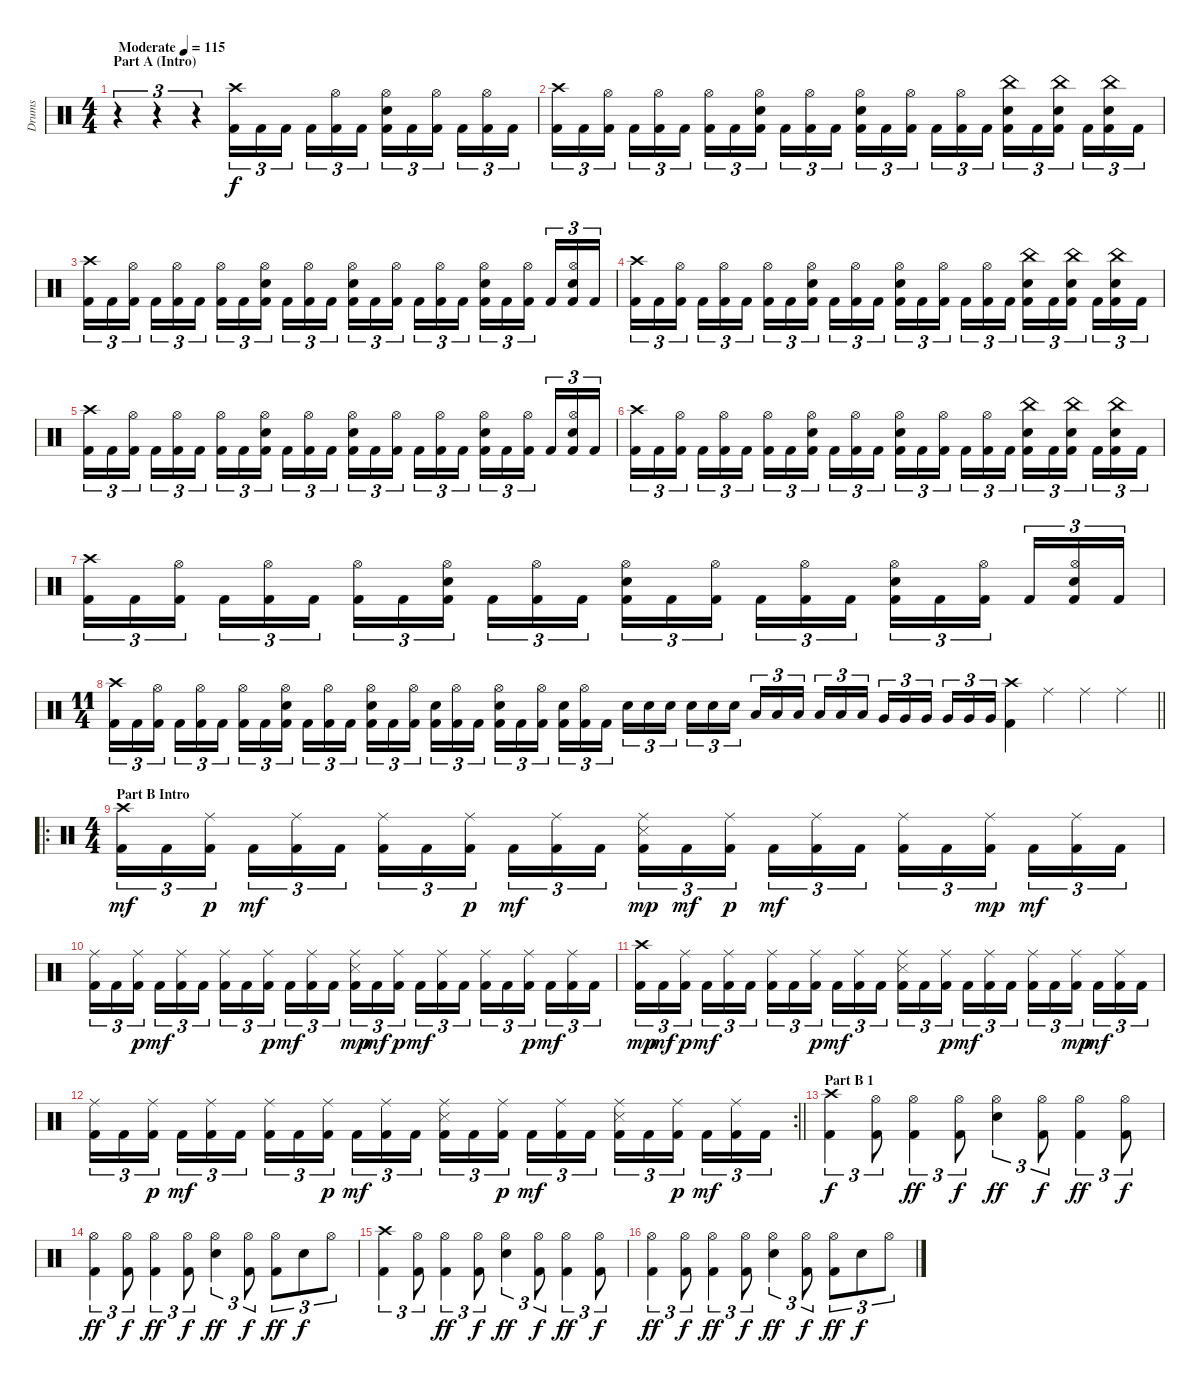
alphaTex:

\track ("Drums" "Drums") {instrument percussion}
\staff {score}
\articulation defaults
\ts (4 4)
\section ("" "Part A (Intro)")
\tempo (115 "Moderate")
\clef neutral
\ks c
r.4{tu (3 2) dy f} r.4{tu (3 2)} r.4{tu (3 2)} ("Kick (hit) 2" "Crash high (hit)").16{tu (3 2)} "Kick (hit) 2".16{tu (3 2)} "Kick (hit) 2".16{tu (3 2) beam splitsecondary} "Kick (hit) 2".16{tu (3 2)} ("Kick (hit) 2" "Hi-Hat (open)").16{tu (3 2)} "Kick (hit) 2".16{tu (3 2)} ("Kick (hit) 2" "Hi-Hat (open)" "Snare (hit) 2").16{tu (3 2)} "Kick (hit) 2".16{tu (3 2)} ("Kick (hit) 2" "Hi-Hat (open)").16{tu (3 2) beam splitsecondary} "Kick (hit) 2".16{tu (3 2)} ("Kick (hit) 2" "Hi-Hat (open)").16{tu (3 2)} "Kick (hit) 2".16{tu (3 2)} |
("Kick (hit) 2" "Crash high (hit)").16{tu (3 2)} "Kick (hit) 2".16{tu (3 2)} ("Kick (hit) 2" "Hi-Hat (open)").16{tu (3 2) beam splitsecondary} "Kick (hit) 2".16{tu (3 2)} ("Kick (hit) 2" "Hi-Hat (open)").16{tu (3 2)} "Kick (hit) 2".16{tu (3 2)} ("Kick (hit) 2" "Hi-Hat (open)").16{tu (3 2)} "Kick (hit) 2".16{tu (3 2)} ("Kick (hit) 2" "Hi-Hat (open)" "Snare (hit) 2").16{tu (3 2) beam splitsecondary} "Kick (hit) 2".16{tu (3 2)} ("Kick (hit) 2" "Hi-Hat (open)").16{tu (3 2)} "Kick (hit) 2".16{tu (3 2)} ("Kick (hit) 2" "Snare (hit) 2" "Hi-Hat (open)").16{tu (3 2)} "Kick (hit) 2".16{tu (3 2)} ("Kick (hit) 2" "Hi-Hat (open)").16{tu (3 2) beam splitsecondary} "Kick (hit) 2".16{tu (3 2)} ("Kick (hit) 2" "Hi-Hat (open)").16{tu (3 2)} "Kick (hit) 2".16{tu (3 2)} ("Kick (hit) 2" "China (hit)" "Snare (hit) 2").16{tu (3 2)} "Kick (hit) 2".16{tu (3 2)} ("Kick (hit) 2" "Snare (hit) 2" "China (hit)").16{tu (3 2) beam splitsecondary} "Kick (hit) 2".16{tu (3 2)} ("Kick (hit) 2" "China (hit)" "Snare (hit) 2").16{tu (3 2)} "Kick (hit) 2".16{tu (3 2)} |
("Kick (hit) 2" "Crash high (hit)").16{tu (3 2)} "Kick (hit) 2".16{tu (3 2)} ("Kick (hit) 2" "Hi-Hat (open)").16{tu (3 2) beam splitsecondary} "Kick (hit) 2".16{tu (3 2)} ("Kick (hit) 2" "Hi-Hat (open)").16{tu (3 2)} "Kick (hit) 2".16{tu (3 2)} ("Kick (hit) 2" "Hi-Hat (open)").16{tu (3 2)} "Kick (hit) 2".16{tu (3 2)} ("Kick (hit) 2" "Hi-Hat (open)" "Snare (hit) 2").16{tu (3 2) beam splitsecondary} "Kick (hit) 2".16{tu (3 2)} ("Kick (hit) 2" "Hi-Hat (open)").16{tu (3 2)} "Kick (hit) 2".16{tu (3 2)} ("Kick (hit) 2" "Snare (hit) 2" "Hi-Hat (open)").16{tu (3 2)} "Kick (hit) 2".16{tu (3 2)} ("Kick (hit) 2" "Hi-Hat (open)").16{tu (3 2) beam splitsecondary} "Kick (hit) 2".16{tu (3 2)} ("Kick (hit) 2" "Hi-Hat (open)").16{tu (3 2)} "Kick (hit) 2".16{tu (3 2)} ("Kick (hit) 2" "Hi-Hat (open)" "Snare (hit) 2").16{tu (3 2)} "Kick (hit) 2".16{tu (3 2)} ("Kick (hit) 2" "Hi-Hat (open)").16{tu (3 2) beam splitsecondary} "Kick (hit) 2".16{tu (3 2)} ("Kick (hit) 2" "Hi-Hat (open)" "Snare (hit) 2").16{tu (3 2)} "Kick (hit) 2".16{tu (3 2)} |
("Kick (hit) 2" "Crash high (hit)").16{tu (3 2)} "Kick (hit) 2".16{tu (3 2)} ("Kick (hit) 2" "Hi-Hat (open)").16{tu (3 2) beam splitsecondary} "Kick (hit) 2".16{tu (3 2)} ("Kick (hit) 2" "Hi-Hat (open)").16{tu (3 2)} "Kick (hit) 2".16{tu (3 2)} ("Kick (hit) 2" "Hi-Hat (open)").16{tu (3 2)} "Kick (hit) 2".16{tu (3 2)} ("Kick (hit) 2" "Hi-Hat (open)" "Snare (hit) 2").16{tu (3 2) beam splitsecondary} "Kick (hit) 2".16{tu (3 2)} ("Kick (hit) 2" "Hi-Hat (open)").16{tu (3 2)} "Kick (hit) 2".16{tu (3 2)} ("Kick (hit) 2" "Snare (hit) 2" "Hi-Hat (open)").16{tu (3 2)} "Kick (hit) 2".16{tu (3 2)} ("Kick (hit) 2" "Hi-Hat (open)").16{tu (3 2) beam splitsecondary} "Kick (hit) 2".16{tu (3 2)} ("Kick (hit) 2" "Hi-Hat (open)").16{tu (3 2)} "Kick (hit) 2".16{tu (3 2)} ("Kick (hit) 2" "China (hit)" "Snare (hit) 2").16{tu (3 2)} "Kick (hit) 2".16{tu (3 2)} ("Kick (hit) 2" "Snare (hit) 2" "China (hit)").16{tu (3 2) beam splitsecondary} "Kick (hit) 2".16{tu (3 2)} ("Kick (hit) 2" "China (hit)" "Snare (hit) 2").16{tu (3 2)} "Kick (hit) 2".16{tu (3 2)} |
("Kick (hit) 2" "Crash high (hit)").16{tu (3 2)} "Kick (hit) 2".16{tu (3 2)} ("Kick (hit) 2" "Hi-Hat (open)").16{tu (3 2) beam splitsecondary} "Kick (hit) 2".16{tu (3 2)} ("Kick (hit) 2" "Hi-Hat (open)").16{tu (3 2)} "Kick (hit) 2".16{tu (3 2)} ("Kick (hit) 2" "Hi-Hat (open)").16{tu (3 2)} "Kick (hit) 2".16{tu (3 2)} ("Kick (hit) 2" "Hi-Hat (open)" "Snare (hit) 2").16{tu (3 2) beam splitsecondary} "Kick (hit) 2".16{tu (3 2)} ("Kick (hit) 2" "Hi-Hat (open)").16{tu (3 2)} "Kick (hit) 2".16{tu (3 2)} ("Kick (hit) 2" "Snare (hit) 2" "Hi-Hat (open)").16{tu (3 2)} "Kick (hit) 2".16{tu (3 2)} ("Kick (hit) 2" "Hi-Hat (open)").16{tu (3 2) beam splitsecondary} "Kick (hit) 2".16{tu (3 2)} ("Kick (hit) 2" "Hi-Hat (open)").16{tu (3 2)} "Kick (hit) 2".16{tu (3 2)} ("Kick (hit) 2" "Hi-Hat (open)" "Snare (hit) 2").16{tu (3 2)} "Kick (hit) 2".16{tu (3 2)} ("Kick (hit) 2" "Hi-Hat (open)").16{tu (3 2) beam splitsecondary} "Kick (hit) 2".16{tu (3 2)} ("Kick (hit) 2" "Hi-Hat (open)" "Snare (hit) 2").16{tu (3 2)} "Kick (hit) 2".16{tu (3 2)} |
("Kick (hit) 2" "Crash high (hit)").16{tu (3 2)} "Kick (hit) 2".16{tu (3 2)} ("Kick (hit) 2" "Hi-Hat (open)").16{tu (3 2) beam splitsecondary} "Kick (hit) 2".16{tu (3 2)} ("Kick (hit) 2" "Hi-Hat (open)").16{tu (3 2)} "Kick (hit) 2".16{tu (3 2)} ("Kick (hit) 2" "Hi-Hat (open)").16{tu (3 2)} "Kick (hit) 2".16{tu (3 2)} ("Kick (hit) 2" "Hi-Hat (open)" "Snare (hit) 2").16{tu (3 2) beam splitsecondary} "Kick (hit) 2".16{tu (3 2)} ("Kick (hit) 2" "Hi-Hat (open)").16{tu (3 2)} "Kick (hit) 2".16{tu (3 2)} ("Kick (hit) 2" "Snare (hit) 2" "Hi-Hat (open)").16{tu (3 2)} "Kick (hit) 2".16{tu (3 2)} ("Kick (hit) 2" "Hi-Hat (open)").16{tu (3 2) beam splitsecondary} "Kick (hit) 2".16{tu (3 2)} ("Kick (hit) 2" "Hi-Hat (open)").16{tu (3 2)} "Kick (hit) 2".16{tu (3 2)} ("Kick (hit) 2" "China (hit)" "Snare (hit) 2").16{tu (3 2)} "Kick (hit) 2".16{tu (3 2)} ("Kick (hit) 2" "Snare (hit) 2" "China (hit)").16{tu (3 2) beam splitsecondary} "Kick (hit) 2".16{tu (3 2)} ("Kick (hit) 2" "China (hit)" "Snare (hit) 2").16{tu (3 2)} "Kick (hit) 2".16{tu (3 2)} |
("Kick (hit) 2" "Crash high (hit)").16{tu (3 2)} "Kick (hit) 2".16{tu (3 2)} ("Kick (hit) 2" "Hi-Hat (open)").16{tu (3 2) beam splitsecondary} "Kick (hit) 2".16{tu (3 2)} ("Kick (hit) 2" "Hi-Hat (open)").16{tu (3 2)} "Kick (hit) 2".16{tu (3 2)} ("Kick (hit) 2" "Hi-Hat (open)").16{tu (3 2)} "Kick (hit) 2".16{tu (3 2)} ("Kick (hit) 2" "Hi-Hat (open)" "Snare (hit) 2").16{tu (3 2) beam splitsecondary} "Kick (hit) 2".16{tu (3 2)} ("Kick (hit) 2" "Hi-Hat (open)").16{tu (3 2)} "Kick (hit) 2".16{tu (3 2)} ("Kick (hit) 2" "Snare (hit) 2" "Hi-Hat (open)").16{tu (3 2)} "Kick (hit) 2".16{tu (3 2)} ("Kick (hit) 2" "Hi-Hat (open)").16{tu (3 2) beam splitsecondary} "Kick (hit) 2".16{tu (3 2)} ("Kick (hit) 2" "Hi-Hat (open)").16{tu (3 2)} "Kick (hit) 2".16{tu (3 2)} ("Kick (hit) 2" "Hi-Hat (open)" "Snare (hit) 2").16{tu (3 2)} "Kick (hit) 2".16{tu (3 2)} ("Kick (hit) 2" "Hi-Hat (open)").16{tu (3 2) beam splitsecondary} "Kick (hit) 2".16{tu (3 2)} ("Kick (hit) 2" "Hi-Hat (open)" "Snare (hit) 2").16{tu (3 2)} "Kick (hit) 2".16{tu (3 2)} |
\ts (11 4)
\barLineRight lightlight
("Kick (hit) 2" "Crash high (hit)").16{tu (3 2)} "Kick (hit) 2".16{tu (3 2)} ("Kick (hit) 2" "Hi-Hat (open)").16{tu (3 2) beam splitsecondary} "Kick (hit) 2".16{tu (3 2)} ("Kick (hit) 2" "Hi-Hat (open)").16{tu (3 2)} "Kick (hit) 2".16{tu (3 2)} ("Kick (hit) 2" "Hi-Hat (open)").16{tu (3 2)} "Kick (hit) 2".16{tu (3 2)} ("Kick (hit) 2" "Hi-Hat (open)" "Snare (hit) 2").16{tu (3 2) beam splitsecondary} "Kick (hit) 2".16{tu (3 2)} ("Kick (hit) 2" "Hi-Hat (open)").16{tu (3 2)} "Kick (hit) 2".16{tu (3 2)} ("Kick (hit) 2" "Snare (hit) 2" "Hi-Hat (open)").16{tu (3 2)} "Kick (hit) 2".16{tu (3 2)} ("Kick (hit) 2" "Hi-Hat (open)").16{tu (3 2) beam splitsecondary} ("Kick (hit) 2" "Snare (hit) 2").16{tu (3 2)} ("Kick (hit) 2" "Hi-Hat (open)").16{tu (3 2)} "Kick (hit) 2".16{tu (3 2)} ("Kick (hit) 2" "Hi-Hat (open)" "Snare (hit) 2").16{tu (3 2)} "Kick (hit) 2".16{tu (3 2)} ("Kick (hit) 2" "Hi-Hat (open)").16{tu (3 2) beam splitsecondary} ("Kick (hit) 2" "Snare (hit) 2").16{tu (3 2)} ("Kick (hit) 2" "Hi-Hat (open)").16{tu (3 2)} "Kick (hit) 2".16{tu (3 2)} "Snare (hit) 2".16{tu (3 2)} "Snare (hit) 2".16{tu (3 2)} "Snare (hit) 2".16{tu (3 2) beam splitsecondary} "Snare (hit) 2".16{tu (3 2)} "Snare (hit) 2".16{tu (3 2)} "Snare (hit) 2".16{tu (3 2)} "Low Tom (hit)".16{tu (3 2)} "Low Tom (hit)".16{tu (3 2)} "Low Tom (hit)".16{tu (3 2) beam splitsecondary} "Low Tom (hit)".16{tu (3 2)} "Low Tom (hit)".16{tu (3 2)} "Low Tom (hit)".16{tu (3 2)} "Very Low Tom (hit)".16{tu (3 2)} "Very Low Tom (hit)".16{tu (3 2)} "Very Low Tom (hit)".16{tu (3 2) beam splitsecondary} "Very Low Tom (hit)".16{tu (3 2)} "Very Low Tom (hit)".16{tu (3 2)} "Very Low Tom (hit)".16{tu (3 2)} ("Kick (hit) 2" "Crash high (hit)").4 "Ride (middle)".4 "Ride (middle)".4 "Ride (middle)".4 |
\ro
\ts (4 4)
\section ("" "Part B Intro")
("Kick (hit) 2" "Crash high (hit)").16{tu (3 2) dy mf} "Kick (hit) 2".16{tu (3 2)} ("Kick (hit) 2" "Ride (middle)").16{tu (3 2) dy p beam splitsecondary} "Kick (hit) 2".16{tu (3 2) dy mf} ("Kick (hit) 2" "Ride (middle)").16{tu (3 2)} "Kick (hit) 2".16{tu (3 2)} ("Kick (hit) 2" "Ride (middle)").16{tu (3 2)} "Kick (hit) 2".16{tu (3 2)} ("Kick (hit) 2" "Ride (middle)").16{tu (3 2) dy p beam splitsecondary} "Kick (hit) 2".16{tu (3 2) dy mf} ("Kick (hit) 2" "Ride (middle)").16{tu (3 2)} "Kick (hit) 2".16{tu (3 2)} ("Kick (hit) 2" "Ride (middle)" "Snare (side stick) 3").16{tu (3 2) dy mp} "Kick (hit) 2".16{tu (3 2) dy mf} ("Kick (hit) 2" "Ride (middle)").16{tu (3 2) dy p beam splitsecondary} "Kick (hit) 2".16{tu (3 2) dy mf} ("Kick (hit) 2" "Ride (middle)").16{tu (3 2)} "Kick (hit) 2".16{tu (3 2)} ("Kick (hit) 2" "Ride (middle)").16{tu (3 2)} "Kick (hit) 2".16{tu (3 2)} ("Kick (hit) 2" "Ride (middle)").16{tu (3 2) dy mp beam splitsecondary} "Kick (hit) 2".16{tu (3 2) dy mf} ("Kick (hit) 2" "Ride (middle)").16{tu (3 2)} "Kick (hit) 2".16{tu (3 2)} |
("Kick (hit) 2" "Ride (middle)").16{tu (3 2)} "Kick (hit) 2".16{tu (3 2)} ("Kick (hit) 2" "Ride (middle)").16{tu (3 2) dy p beam splitsecondary} "Kick (hit) 2".16{tu (3 2) dy mf} ("Kick (hit) 2" "Ride (middle)").16{tu (3 2)} "Kick (hit) 2".16{tu (3 2)} ("Kick (hit) 2" "Ride (middle)").16{tu (3 2)} "Kick (hit) 2".16{tu (3 2)} ("Kick (hit) 2" "Ride (middle)").16{tu (3 2) dy p beam splitsecondary} "Kick (hit) 2".16{tu (3 2) dy mf} ("Kick (hit) 2" "Ride (middle)").16{tu (3 2)} "Kick (hit) 2".16{tu (3 2)} ("Kick (hit) 2" "Ride (middle)" "Snare (side stick) 3").16{tu (3 2) dy mp} "Kick (hit) 2".16{tu (3 2) dy mf} ("Kick (hit) 2" "Ride (middle)").16{tu (3 2) dy p beam splitsecondary} "Kick (hit) 2".16{tu (3 2) dy mf} ("Kick (hit) 2" "Ride (middle)").16{tu (3 2)} "Kick (hit) 2".16{tu (3 2)} ("Kick (hit) 2" "Ride (middle)").16{tu (3 2)} "Kick (hit) 2".16{tu (3 2)} ("Kick (hit) 2" "Ride (middle)").16{tu (3 2) dy p beam splitsecondary} "Kick (hit) 2".16{tu (3 2) dy mf} ("Kick (hit) 2" "Ride (middle)").16{tu (3 2)} "Kick (hit) 2".16{tu (3 2)} |
("Kick (hit) 2" "Crash high (hit)").16{tu (3 2) dy mp} "Kick (hit) 2".16{tu (3 2) dy mf} ("Kick (hit) 2" "Ride (middle)").16{tu (3 2) dy p beam splitsecondary} "Kick (hit) 2".16{tu (3 2) dy mf} ("Kick (hit) 2" "Ride (middle)").16{tu (3 2)} "Kick (hit) 2".16{tu (3 2)} ("Kick (hit) 2" "Ride (middle)").16{tu (3 2)} "Kick (hit) 2".16{tu (3 2)} ("Kick (hit) 2" "Ride (middle)").16{tu (3 2) dy p beam splitsecondary} "Kick (hit) 2".16{tu (3 2) dy mf} ("Kick (hit) 2" "Ride (middle)").16{tu (3 2)} "Kick (hit) 2".16{tu (3 2)} ("Kick (hit) 2" "Ride (middle)" "Snare (side stick) 3").16{tu (3 2)} "Kick (hit) 2".16{tu (3 2)} ("Kick (hit) 2" "Ride (middle)").16{tu (3 2) dy p beam splitsecondary} "Kick (hit) 2".16{tu (3 2) dy mf} ("Kick (hit) 2" "Ride (middle)").16{tu (3 2)} "Kick (hit) 2".16{tu (3 2)} ("Kick (hit) 2" "Ride (middle)").16{tu (3 2)} "Kick (hit) 2".16{tu (3 2)} ("Kick (hit) 2" "Ride (middle)").16{tu (3 2) dy mp beam splitsecondary} "Kick (hit) 2".16{tu (3 2) dy mf} ("Kick (hit) 2" "Ride (middle)").16{tu (3 2)} "Kick (hit) 2".16{tu (3 2)} |
\rc 2
\barLineRight lightlight
("Kick (hit) 2" "Ride (middle)").16{tu (3 2)} "Kick (hit) 2".16{tu (3 2)} ("Kick (hit) 2" "Ride (middle)").16{tu (3 2) dy p beam splitsecondary} "Kick (hit) 2".16{tu (3 2) dy mf} ("Kick (hit) 2" "Ride (middle)").16{tu (3 2)} "Kick (hit) 2".16{tu (3 2)} ("Kick (hit) 2" "Ride (middle)").16{tu (3 2)} "Kick (hit) 2".16{tu (3 2)} ("Kick (hit) 2" "Ride (middle)").16{tu (3 2) dy p beam splitsecondary} "Kick (hit) 2".16{tu (3 2) dy mf} ("Kick (hit) 2" "Ride (middle)").16{tu (3 2)} "Kick (hit) 2".16{tu (3 2)} ("Kick (hit) 2" "Ride (middle)" "Snare (side stick) 3").16{tu (3 2)} "Kick (hit) 2".16{tu (3 2)} ("Kick (hit) 2" "Ride (middle)").16{tu (3 2) dy p beam splitsecondary} "Kick (hit) 2".16{tu (3 2) dy mf} ("Kick (hit) 2" "Ride (middle)").16{tu (3 2)} "Kick (hit) 2".16{tu (3 2)} ("Kick (hit) 2" "Ride (middle)" "Snare (side stick) 3").16{tu (3 2)} "Kick (hit) 2".16{tu (3 2)} ("Kick (hit) 2" "Ride (middle)").16{tu (3 2) dy p beam splitsecondary} "Kick (hit) 2".16{tu (3 2) dy mf} ("Kick (hit) 2" "Ride (middle)").16{tu (3 2)} "Kick (hit) 2".16{tu (3 2)} |
\section ("" "Part B 1")
("Crash high (hit)" "Kick (hit) 2").4{tu (3 2) dy f} ("Kick (hit) 2" "Hi-Hat (open)").8{tu (3 2)} ("Hi-Hat (open)" "Kick (hit) 2").4{tu (3 2) dy ff} ("Hi-Hat (open)" "Kick (hit) 2").8{tu (3 2) dy f} ("Hi-Hat (open)" "Snare (hit) 2").4{tu (3 2) dy ff} ("Hi-Hat (open)" "Kick (hit) 2").8{tu (3 2) dy f} ("Hi-Hat (open)" "Kick (hit) 2").4{tu (3 2) dy ff} ("Hi-Hat (open)" "Kick (hit) 2").8{tu (3 2) dy f} |
("Hi-Hat (open)" "Kick (hit) 2").4{tu (3 2) dy ff} ("Kick (hit) 2" "Hi-Hat (open)").8{tu (3 2) dy f} ("Hi-Hat (open)" "Kick (hit) 2").4{tu (3 2) dy ff} ("Hi-Hat (open)" "Kick (hit) 2").8{tu (3 2) dy f} ("Hi-Hat (open)" "Snare (hit) 2").4{tu (3 2) dy ff} ("Hi-Hat (open)" "Kick (hit) 2").8{tu (3 2) dy f} ("Hi-Hat (open)" "Kick (hit) 2").8{tu (3 2) dy ff} "Snare (hit) 2".8{tu (3 2) dy f} "Hi-Hat (open)".8{tu (3 2)} |
("Crash high (hit)" "Kick (hit) 2").4{tu (3 2)} ("Kick (hit) 2" "Hi-Hat (open)").8{tu (3 2)} ("Hi-Hat (open)" "Kick (hit) 2").4{tu (3 2) dy ff} ("Hi-Hat (open)" "Kick (hit) 2").8{tu (3 2) dy f} ("Hi-Hat (open)" "Snare (hit) 2").4{tu (3 2) dy ff} ("Hi-Hat (open)" "Kick (hit) 2").8{tu (3 2) dy f} ("Hi-Hat (open)" "Kick (hit) 2").4{tu (3 2) dy ff} ("Hi-Hat (open)" "Kick (hit) 2").8{tu (3 2) dy f} |
("Hi-Hat (open)" "Kick (hit) 2").4{tu (3 2) dy ff} ("Kick (hit) 2" "Hi-Hat (open)").8{tu (3 2) dy f} ("Hi-Hat (open)" "Kick (hit) 2").4{tu (3 2) dy ff} ("Hi-Hat (open)" "Kick (hit) 2").8{tu (3 2) dy f} ("Hi-Hat (open)" "Snare (hit) 2").4{tu (3 2) dy ff} ("Hi-Hat (open)" "Kick (hit) 2").8{tu (3 2) dy f} ("Hi-Hat (open)" "Kick (hit) 2").8{tu (3 2) dy ff} "Snare (hit) 2".8{tu (3 2) dy f} "Hi-Hat (open)".8{tu (3 2)}
